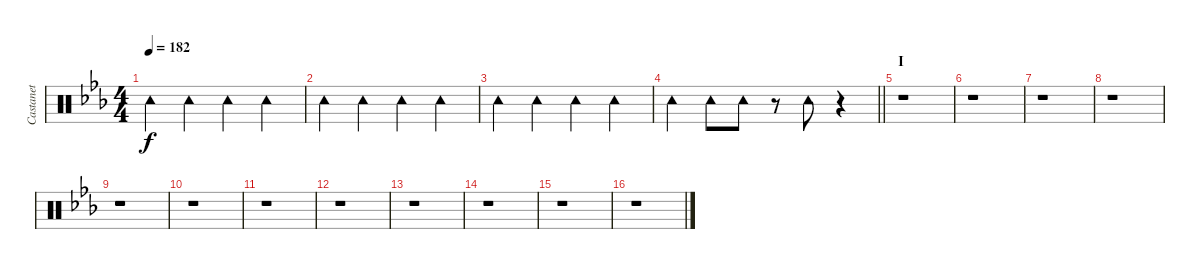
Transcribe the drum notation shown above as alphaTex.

\track ("Castanet" "Castanet") {instrument percussion}
\staff {score}
\articulation defaults
\ts (4 4)
\tempo 182
\clef neutral
\ks eb "Tambourine (hit)".4{dy f} "Tambourine (hit)".4 "Tambourine (hit)".4 "Tambourine (hit)".4
|
"Tambourine (hit)".4 "Tambourine (hit)".4 "Tambourine (hit)".4 "Tambourine (hit)".4 |
"Tambourine (hit)".4 "Tambourine (hit)".4 "Tambourine (hit)".4 "Tambourine (hit)".4 |
\barLineRight lightlight "Tambourine (hit)".4 "Tambourine (hit)".8 "Tambourine (hit)".8
r.8 "Tambourine (hit)".8 r.4 |
\section ("" "I")
r.1 |
r.1 |
r.1 |
r.1 |
r.1 |
r.1 |
r.1 |
r.1 |
r.1 |
r.1 |
r.1 |
r.1
